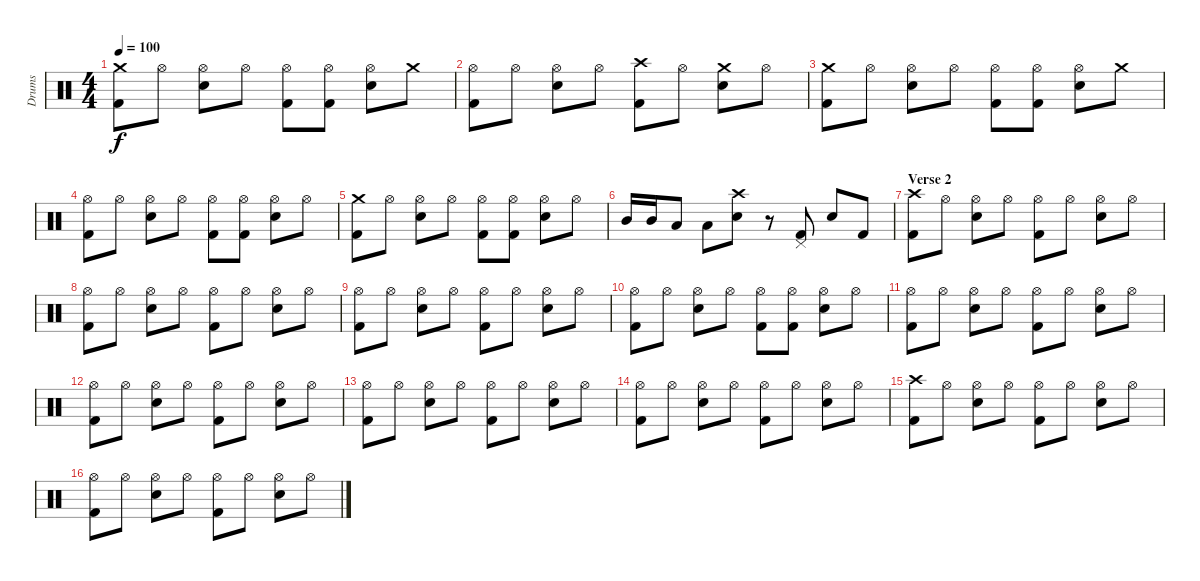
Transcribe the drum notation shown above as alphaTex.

\track ("Drums" "Drums") {instrument percussion}
\staff {score}
\articulation defaults
\ts (4 4)
\tempo 100
\clef neutral
\ks c
("Crash medium (hit)" "Kick (hit) 2").8{dy f} "Hi-Hat (open)".8 ("Hi-Hat (open)" "Electric Snare (hit)").8 "Hi-Hat (open)".8 ("Hi-Hat (open)" "Kick (hit) 2").8 ("Hi-Hat (open)" "Kick (hit) 2").8 ("Hi-Hat (open)" "Electric Snare (hit)").8 "Crash medium (hit)".8 |
("Hi-Hat (open)" "Kick (hit) 2").8 "Hi-Hat (open)".8 ("Hi-Hat (open)" "Electric Snare (hit)").8 "Hi-Hat (open)".8 ("Crash high (hit)" "Kick (hit) 2").8 "Hi-Hat (open)".8 ("Crash medium (hit)" "Electric Snare (hit)").8 "Hi-Hat (open)".8 |
("Crash medium (hit)" "Kick (hit) 2").8 "Hi-Hat (open)".8 ("Hi-Hat (open)" "Electric Snare (hit)").8 "Hi-Hat (open)".8 ("Hi-Hat (open)" "Kick (hit) 2").8 ("Hi-Hat (open)" "Kick (hit) 2").8 ("Hi-Hat (open)" "Electric Snare (hit)").8 "Crash medium (hit)".8 |
("Hi-Hat (open)" "Kick (hit) 2").8 "Hi-Hat (open)".8 ("Hi-Hat (open)" "Electric Snare (hit)").8 "Hi-Hat (open)".8 ("Hi-Hat (open)" "Kick (hit) 2").8 ("Hi-Hat (open)" "Kick (hit) 2").8 ("Hi-Hat (open)" "Electric Snare (hit)").8 "Hi-Hat (open)".8 |
("Crash medium (hit)" "Kick (hit) 2").8 "Hi-Hat (open)".8 ("Hi-Hat (open)" "Electric Snare (hit)").8 "Hi-Hat (open)".8 ("Hi-Hat (open)" "Kick (hit) 2").8 ("Hi-Hat (open)" "Kick (hit) 2").8 ("Hi-Hat (open)" "Electric Snare (hit)").8 "Hi-Hat (open)".8 |
"Mid Tom (hit)".16 "Mid Tom (hit)".16 "Low Tom (hit)".8 "Low Tom (hit)".8 ("Crash high (hit)" "Electric Snare (hit)").8 r.8 ("Pedal Hi-Hat (hit)" "Kick (hit) 2").8 "Electric Snare (hit)".8 "Kick (hit) 2".8 |
\section ("" "Verse 2")
("Crash high (hit)" "Kick (hit) 2").8 "Hi-Hat (open)".8 ("Hi-Hat (open)" "Electric Snare (hit)").8 "Hi-Hat (open)".8 ("Hi-Hat (open)" "Kick (hit) 2").8 "Hi-Hat (open)".8 ("Hi-Hat (open)" "Electric Snare (hit)").8 "Hi-Hat (open)".8 |
("Hi-Hat (open)" "Kick (hit) 2").8 "Hi-Hat (open)".8 ("Hi-Hat (open)" "Electric Snare (hit)").8 "Hi-Hat (open)".8 ("Hi-Hat (open)" "Kick (hit) 2").8 "Hi-Hat (open)".8 ("Hi-Hat (open)" "Electric Snare (hit)").8 "Hi-Hat (open)".8 |
("Hi-Hat (open)" "Kick (hit) 2").8 "Hi-Hat (open)".8 ("Hi-Hat (open)" "Electric Snare (hit)").8 "Hi-Hat (open)".8 ("Hi-Hat (open)" "Kick (hit) 2").8 "Hi-Hat (open)".8 ("Hi-Hat (open)" "Electric Snare (hit)").8 "Hi-Hat (open)".8 |
("Hi-Hat (open)" "Kick (hit) 2").8 "Hi-Hat (open)".8 ("Hi-Hat (open)" "Electric Snare (hit)").8 "Hi-Hat (open)".8 ("Hi-Hat (open)" "Kick (hit) 2").8 ("Hi-Hat (open)" "Kick (hit) 2").8 ("Hi-Hat (open)" "Electric Snare (hit)").8 "Hi-Hat (open)".8 |
("Hi-Hat (open)" "Kick (hit) 2").8 "Hi-Hat (open)".8 ("Hi-Hat (open)" "Electric Snare (hit)").8 "Hi-Hat (open)".8 ("Hi-Hat (open)" "Kick (hit) 2").8 "Hi-Hat (open)".8 ("Hi-Hat (open)" "Electric Snare (hit)").8 "Hi-Hat (open)".8 |
("Hi-Hat (open)" "Kick (hit) 2").8 "Hi-Hat (open)".8 ("Hi-Hat (open)" "Electric Snare (hit)").8 "Hi-Hat (open)".8 ("Hi-Hat (open)" "Kick (hit) 2").8 "Hi-Hat (open)".8 ("Hi-Hat (open)" "Electric Snare (hit)").8 "Hi-Hat (open)".8 |
("Hi-Hat (open)" "Kick (hit) 2").8 "Hi-Hat (open)".8 ("Hi-Hat (open)" "Electric Snare (hit)").8 "Hi-Hat (open)".8 ("Hi-Hat (open)" "Kick (hit) 2").8 "Hi-Hat (open)".8 ("Hi-Hat (open)" "Electric Snare (hit)").8 "Hi-Hat (open)".8 |
("Hi-Hat (open)" "Kick (hit) 2").8 "Hi-Hat (open)".8 ("Hi-Hat (open)" "Electric Snare (hit)").8 "Hi-Hat (open)".8 ("Hi-Hat (open)" "Kick (hit) 2").8 "Hi-Hat (open)".8 ("Hi-Hat (open)" "Electric Snare (hit)").8 "Hi-Hat (open)".8 |
("Crash high (hit)" "Kick (hit) 2").8 "Hi-Hat (open)".8 ("Hi-Hat (open)" "Electric Snare (hit)").8 "Hi-Hat (open)".8 ("Hi-Hat (open)" "Kick (hit) 2").8 "Hi-Hat (open)".8 ("Hi-Hat (open)" "Electric Snare (hit)").8 "Hi-Hat (open)".8 |
("Hi-Hat (open)" "Kick (hit) 2").8 "Hi-Hat (open)".8 ("Hi-Hat (open)" "Electric Snare (hit)").8 "Hi-Hat (open)".8 ("Hi-Hat (open)" "Kick (hit) 2").8 "Hi-Hat (open)".8 ("Hi-Hat (open)" "Electric Snare (hit)").8 "Hi-Hat (open)".8
